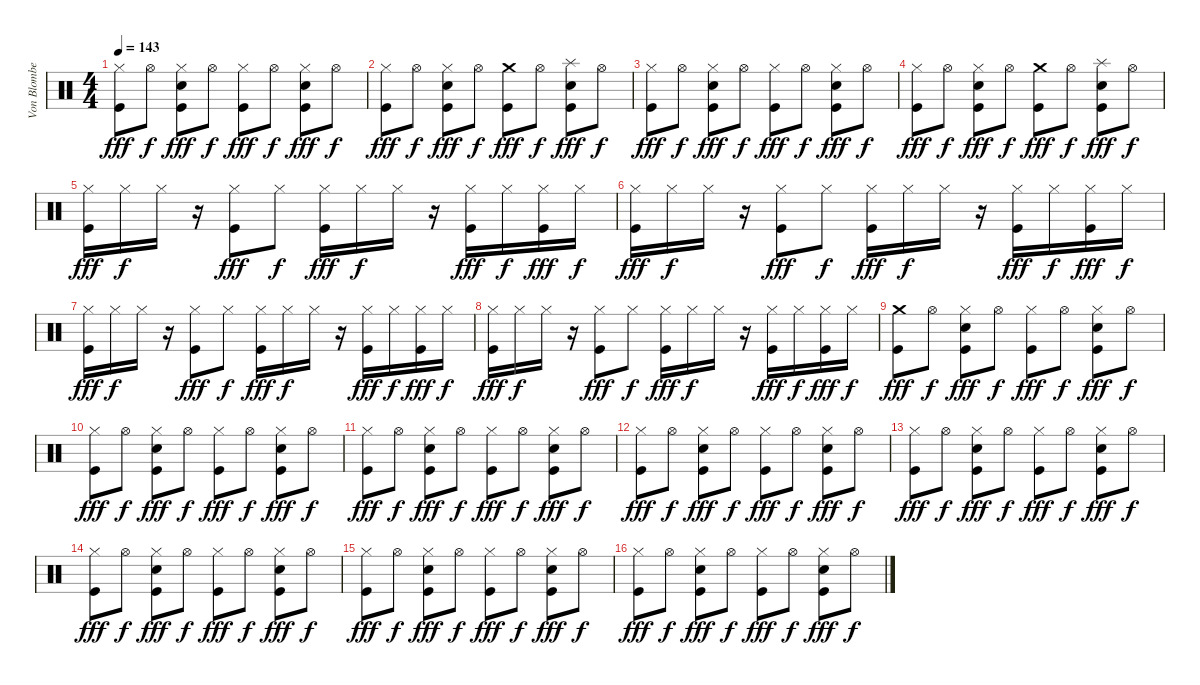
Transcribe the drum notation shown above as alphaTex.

\track ("Von Blomberg" "Von Blombe") {instrument percussion}
\staff {score}
\articulation defaults
\ts (4 4)
\tempo 143
\clef neutral
\ks c
("Hi-Hat (closed)" "Kick (hit)").8{dy fff} "Hi-Hat (open)".8{dy f} ("Hi-Hat (closed)" "Electric Snare (hit)" "Kick (hit)").8{dy fff} "Hi-Hat (open)".8{dy f} ("Hi-Hat (closed)" "Kick (hit)").8{dy fff} "Hi-Hat (open)".8{dy f} ("Hi-Hat (closed)" "Electric Snare (hit)" "Kick (hit)").8{dy fff} "Hi-Hat (open)".8{dy f} |
("Hi-Hat (closed)" "Kick (hit)").8{dy fff} "Hi-Hat (open)".8{dy f} ("Hi-Hat (closed)" "Electric Snare (hit)" "Kick (hit)").8{dy fff} "Hi-Hat (open)".8{dy f} ("Crash medium (hit)" "Kick (hit)").8{dy fff} "Hi-Hat (open)".8{dy f} ("Splash (hit)" "Electric Snare (hit)" "Kick (hit)").8{dy fff} "Hi-Hat (open)".8{dy f} |
("Hi-Hat (closed)" "Kick (hit)").8{dy fff} "Hi-Hat (open)".8{dy f} ("Hi-Hat (closed)" "Electric Snare (hit)" "Kick (hit)").8{dy fff} "Hi-Hat (open)".8{dy f} ("Hi-Hat (closed)" "Kick (hit)").8{dy fff} "Hi-Hat (open)".8{dy f} ("Hi-Hat (closed)" "Electric Snare (hit)" "Kick (hit)").8{dy fff} "Hi-Hat (open)".8{dy f} |
("Hi-Hat (closed)" "Kick (hit)").8{dy fff} "Hi-Hat (open)".8{dy f} ("Hi-Hat (closed)" "Electric Snare (hit)" "Kick (hit)").8{dy fff} "Hi-Hat (open)".8{dy f} ("Crash medium (hit)" "Kick (hit)").8{dy fff} "Hi-Hat (open)".8{dy f} ("Splash (hit)" "Electric Snare (hit)" "Kick (hit)").8{dy fff} "Hi-Hat (open)".8{dy f} |
("Hi-Hat (closed)" "Kick (hit)").16{dy fff} "Hi-Hat (closed)".16{dy f} "Hi-Hat (closed)".16 r.16 ("Hi-Hat (closed)" "Kick (hit)").8{dy fff} "Hi-Hat (closed)".8{dy f} ("Hi-Hat (closed)" "Kick (hit)").16{dy fff} "Hi-Hat (closed)".16{dy f} "Hi-Hat (closed)".16 r.16 ("Hi-Hat (closed)" "Kick (hit)").16{dy fff} "Hi-Hat (closed)".16{dy f} ("Hi-Hat (closed)" "Kick (hit)").16{dy fff} "Hi-Hat (closed)".16{dy f} |
("Hi-Hat (closed)" "Kick (hit)").16{dy fff} "Hi-Hat (closed)".16{dy f} "Hi-Hat (closed)".16 r.16 ("Hi-Hat (closed)" "Kick (hit)").8{dy fff} "Hi-Hat (closed)".8{dy f} ("Hi-Hat (closed)" "Kick (hit)").16{dy fff} "Hi-Hat (closed)".16{dy f} "Hi-Hat (closed)".16 r.16 ("Hi-Hat (closed)" "Kick (hit)").16{dy fff} "Hi-Hat (closed)".16{dy f} ("Hi-Hat (closed)" "Kick (hit)").16{dy fff} "Hi-Hat (closed)".16{dy f} |
("Hi-Hat (closed)" "Kick (hit)").16{dy fff} "Hi-Hat (closed)".16{dy f} "Hi-Hat (closed)".16 r.16 ("Hi-Hat (closed)" "Kick (hit)").8{dy fff} "Hi-Hat (closed)".8{dy f} ("Hi-Hat (closed)" "Kick (hit)").16{dy fff} "Hi-Hat (closed)".16{dy f} "Hi-Hat (closed)".16 r.16 ("Hi-Hat (closed)" "Kick (hit)").16{dy fff} "Hi-Hat (closed)".16{dy f} ("Hi-Hat (closed)" "Kick (hit)").16{dy fff} "Hi-Hat (closed)".16{dy f} |
("Hi-Hat (closed)" "Kick (hit)").16{dy fff} "Hi-Hat (closed)".16{dy f} "Hi-Hat (closed)".16 r.16 ("Hi-Hat (closed)" "Kick (hit)").8{dy fff} "Hi-Hat (closed)".8{dy f} ("Hi-Hat (closed)" "Kick (hit)").16{dy fff} "Hi-Hat (closed)".16{dy f} "Hi-Hat (closed)".16 r.16 ("Hi-Hat (closed)" "Kick (hit)").16{dy fff} "Hi-Hat (closed)".16{dy f} ("Hi-Hat (closed)" "Kick (hit)").16{dy fff} "Hi-Hat (closed)".16{dy f} |
("Crash medium (hit)" "Kick (hit)").8{dy fff} "Hi-Hat (open)".8{dy f} ("Hi-Hat (closed)" "Electric Snare (hit)" "Kick (hit)").8{dy fff} "Hi-Hat (open)".8{dy f} ("Hi-Hat (closed)" "Kick (hit)").8{dy fff} "Hi-Hat (open)".8{dy f} ("Hi-Hat (closed)" "Electric Snare (hit)" "Kick (hit)").8{dy fff} "Hi-Hat (open)".8{dy f} |
("Hi-Hat (closed)" "Kick (hit)").8{dy fff} "Hi-Hat (open)".8{dy f} ("Hi-Hat (closed)" "Electric Snare (hit)" "Kick (hit)").8{dy fff} "Hi-Hat (open)".8{dy f} ("Hi-Hat (closed)" "Kick (hit)").8{dy fff} "Hi-Hat (open)".8{dy f} ("Hi-Hat (closed)" "Electric Snare (hit)" "Kick (hit)").8{dy fff} "Hi-Hat (open)".8{dy f} |
("Hi-Hat (closed)" "Kick (hit)").8{dy fff} "Hi-Hat (open)".8{dy f} ("Hi-Hat (closed)" "Electric Snare (hit)" "Kick (hit)").8{dy fff} "Hi-Hat (open)".8{dy f} ("Hi-Hat (closed)" "Kick (hit)").8{dy fff} "Hi-Hat (open)".8{dy f} ("Hi-Hat (closed)" "Electric Snare (hit)" "Kick (hit)").8{dy fff} "Hi-Hat (open)".8{dy f} |
("Hi-Hat (closed)" "Kick (hit)").8{dy fff} "Hi-Hat (open)".8{dy f} ("Hi-Hat (closed)" "Electric Snare (hit)" "Kick (hit)").8{dy fff} "Hi-Hat (open)".8{dy f} ("Hi-Hat (closed)" "Kick (hit)").8{dy fff} "Hi-Hat (open)".8{dy f} ("Hi-Hat (closed)" "Electric Snare (hit)" "Kick (hit)").8{dy fff} "Hi-Hat (open)".8{dy f} |
("Hi-Hat (closed)" "Kick (hit)").8{dy fff} "Hi-Hat (open)".8{dy f} ("Hi-Hat (closed)" "Electric Snare (hit)" "Kick (hit)").8{dy fff} "Hi-Hat (open)".8{dy f} ("Hi-Hat (closed)" "Kick (hit)").8{dy fff} "Hi-Hat (open)".8{dy f} ("Hi-Hat (closed)" "Electric Snare (hit)" "Kick (hit)").8{dy fff} "Hi-Hat (open)".8{dy f} |
("Hi-Hat (closed)" "Kick (hit)").8{dy fff} "Hi-Hat (open)".8{dy f} ("Hi-Hat (closed)" "Electric Snare (hit)" "Kick (hit)").8{dy fff} "Hi-Hat (open)".8{dy f} ("Hi-Hat (closed)" "Kick (hit)").8{dy fff} "Hi-Hat (open)".8{dy f} ("Hi-Hat (closed)" "Electric Snare (hit)" "Kick (hit)").8{dy fff} "Hi-Hat (open)".8{dy f} |
("Hi-Hat (closed)" "Kick (hit)").8{dy fff} "Hi-Hat (open)".8{dy f} ("Hi-Hat (closed)" "Electric Snare (hit)" "Kick (hit)").8{dy fff} "Hi-Hat (open)".8{dy f} ("Hi-Hat (closed)" "Kick (hit)").8{dy fff} "Hi-Hat (open)".8{dy f} ("Hi-Hat (closed)" "Electric Snare (hit)" "Kick (hit)").8{dy fff} "Hi-Hat (open)".8{dy f} |
("Hi-Hat (closed)" "Kick (hit)").8{dy fff} "Hi-Hat (open)".8{dy f} ("Hi-Hat (closed)" "Electric Snare (hit)" "Kick (hit)").8{dy fff} "Hi-Hat (open)".8{dy f} ("Hi-Hat (closed)" "Kick (hit)").8{dy fff} "Hi-Hat (open)".8{dy f} ("Hi-Hat (closed)" "Electric Snare (hit)" "Kick (hit)").8{dy fff} "Hi-Hat (open)".8{dy f}
